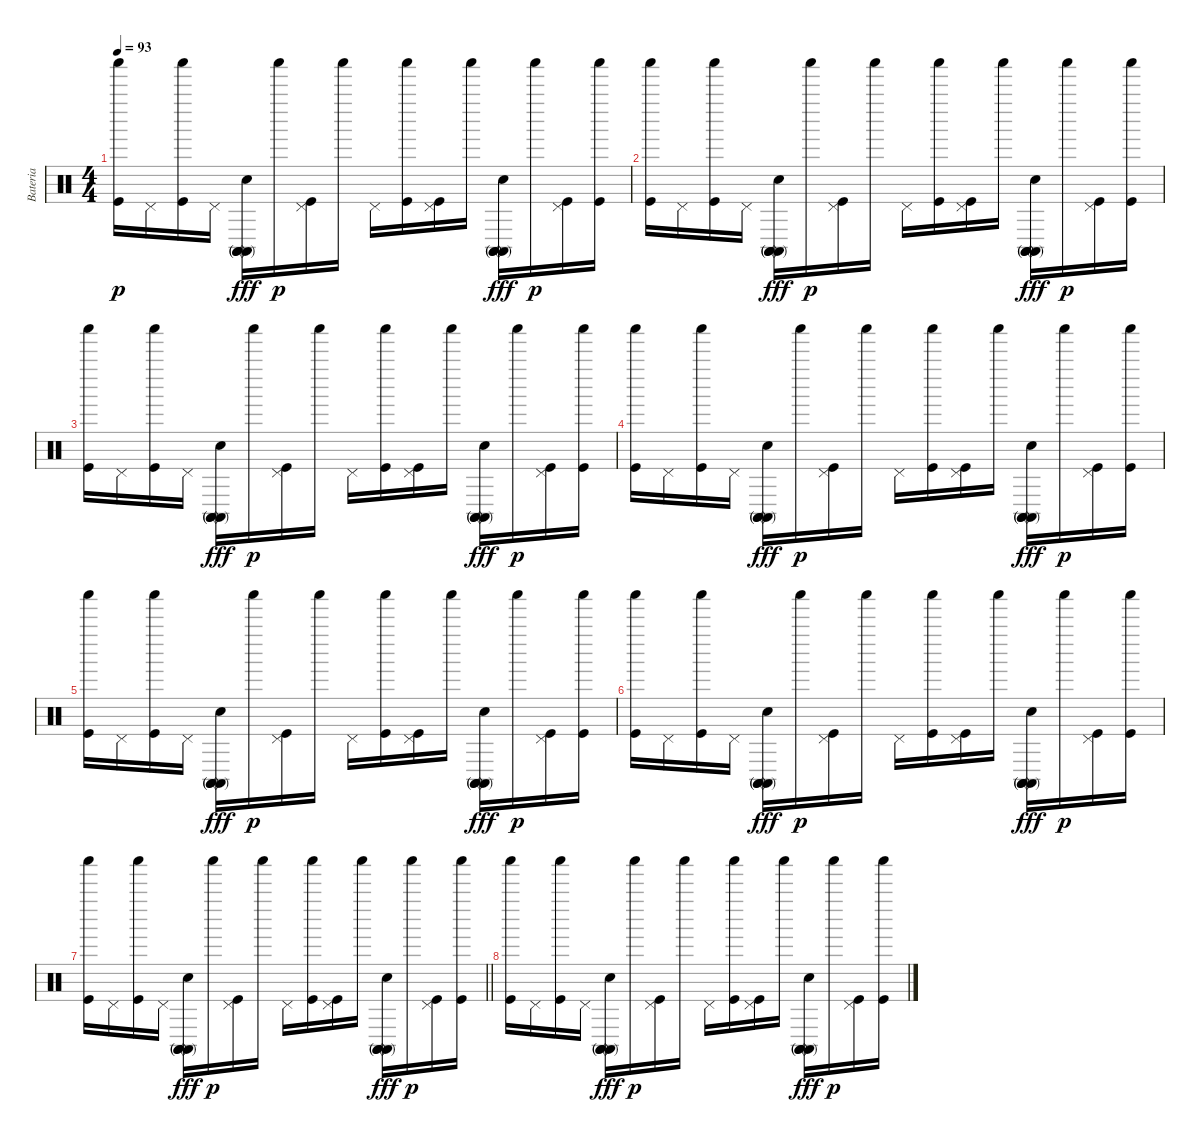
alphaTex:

\track ("Bateria" "Bateria") {instrument percussion}
\staff {score}
\articulation defaults
\ts (4 4)
\tempo 93
\clef neutral
\ks c
("Kick (hit)" "Shaker (hit)").16{dy p volume 13} "Pedal Hi-Hat (hit)".16 ("Kick (hit)" "Shaker (hit)").16 "Pedal Hi-Hat (hit)".16 ("Electric Snare (hit)" "Conga high (mute)" "Conga high (mute)" "Conga high (mute)").16{dy fff} "Shaker (hit)".16{dy p} ("Kick (hit)" "Pedal Hi-Hat (hit)").16 "Shaker (hit)".16 "Pedal Hi-Hat (hit)".16 ("Kick (hit)" "Shaker (hit)").16 ("Kick (hit)" "Pedal Hi-Hat (hit)").16 "Shaker (hit)".16 ("Electric Snare (hit)" "Conga high (mute)" "Conga high (mute)" "Conga high (mute)").16{dy fff} "Shaker (hit)".16{dy p} ("Kick (hit)" "Pedal Hi-Hat (hit)").16 ("Kick (hit)" "Shaker (hit)").16 |
("Kick (hit)" "Shaker (hit)").16{volume 13} "Pedal Hi-Hat (hit)".16 ("Kick (hit)" "Shaker (hit)").16 "Pedal Hi-Hat (hit)".16 ("Electric Snare (hit)" "Conga high (mute)" "Conga high (mute)" "Conga high (mute)").16{dy fff} "Shaker (hit)".16{dy p} ("Kick (hit)" "Pedal Hi-Hat (hit)").16 "Shaker (hit)".16 "Pedal Hi-Hat (hit)".16 ("Kick (hit)" "Shaker (hit)").16 ("Kick (hit)" "Pedal Hi-Hat (hit)").16 "Shaker (hit)".16 ("Electric Snare (hit)" "Conga high (mute)" "Conga high (mute)" "Conga high (mute)").16{dy fff} "Shaker (hit)".16{dy p} ("Kick (hit)" "Pedal Hi-Hat (hit)").16 ("Kick (hit)" "Shaker (hit)").16 |
("Kick (hit)" "Shaker (hit)").16{volume 13} "Pedal Hi-Hat (hit)".16 ("Kick (hit)" "Shaker (hit)").16 "Pedal Hi-Hat (hit)".16 ("Electric Snare (hit)" "Conga high (mute)" "Conga high (mute)" "Conga high (mute)").16{dy fff} "Shaker (hit)".16{dy p} ("Kick (hit)" "Pedal Hi-Hat (hit)").16 "Shaker (hit)".16 "Pedal Hi-Hat (hit)".16 ("Kick (hit)" "Shaker (hit)").16 ("Kick (hit)" "Pedal Hi-Hat (hit)").16 "Shaker (hit)".16 ("Electric Snare (hit)" "Conga high (mute)" "Conga high (mute)" "Conga high (mute)").16{dy fff} "Shaker (hit)".16{dy p} ("Kick (hit)" "Pedal Hi-Hat (hit)").16 ("Kick (hit)" "Shaker (hit)").16 |
("Kick (hit)" "Shaker (hit)").16{volume 13} "Pedal Hi-Hat (hit)".16 ("Kick (hit)" "Shaker (hit)").16 "Pedal Hi-Hat (hit)".16 ("Electric Snare (hit)" "Conga high (mute)" "Conga high (mute)" "Conga high (mute)").16{dy fff} "Shaker (hit)".16{dy p} ("Kick (hit)" "Pedal Hi-Hat (hit)").16 "Shaker (hit)".16 "Pedal Hi-Hat (hit)".16 ("Kick (hit)" "Shaker (hit)").16 ("Kick (hit)" "Pedal Hi-Hat (hit)").16 "Shaker (hit)".16 ("Electric Snare (hit)" "Conga high (mute)" "Conga high (mute)" "Conga high (mute)").16{dy fff} "Shaker (hit)".16{dy p} ("Kick (hit)" "Pedal Hi-Hat (hit)").16 ("Kick (hit)" "Shaker (hit)").16 |
("Kick (hit)" "Shaker (hit)").16{volume 13} "Pedal Hi-Hat (hit)".16 ("Kick (hit)" "Shaker (hit)").16 "Pedal Hi-Hat (hit)".16 ("Electric Snare (hit)" "Conga high (mute)" "Conga high (mute)" "Conga high (mute)").16{dy fff} "Shaker (hit)".16{dy p} ("Kick (hit)" "Pedal Hi-Hat (hit)").16 "Shaker (hit)".16 "Pedal Hi-Hat (hit)".16 ("Kick (hit)" "Shaker (hit)").16 ("Kick (hit)" "Pedal Hi-Hat (hit)").16 "Shaker (hit)".16 ("Electric Snare (hit)" "Conga high (mute)" "Conga high (mute)" "Conga high (mute)").16{dy fff} "Shaker (hit)".16{dy p} ("Kick (hit)" "Pedal Hi-Hat (hit)").16 ("Kick (hit)" "Shaker (hit)").16 |
("Kick (hit)" "Shaker (hit)").16{volume 13} "Pedal Hi-Hat (hit)".16 ("Kick (hit)" "Shaker (hit)").16 "Pedal Hi-Hat (hit)".16 ("Electric Snare (hit)" "Conga high (mute)" "Conga high (mute)" "Conga high (mute)").16{dy fff} "Shaker (hit)".16{dy p} ("Kick (hit)" "Pedal Hi-Hat (hit)").16 "Shaker (hit)".16 "Pedal Hi-Hat (hit)".16 ("Kick (hit)" "Shaker (hit)").16 ("Kick (hit)" "Pedal Hi-Hat (hit)").16 "Shaker (hit)".16 ("Electric Snare (hit)" "Conga high (mute)" "Conga high (mute)" "Conga high (mute)").16{dy fff} "Shaker (hit)".16{dy p} ("Kick (hit)" "Pedal Hi-Hat (hit)").16 ("Kick (hit)" "Shaker (hit)").16 |
\barLineRight lightlight
("Kick (hit)" "Shaker (hit)").16{volume 13} "Pedal Hi-Hat (hit)".16 ("Kick (hit)" "Shaker (hit)").16 "Pedal Hi-Hat (hit)".16 ("Electric Snare (hit)" "Conga high (mute)" "Conga high (mute)" "Conga high (mute)").16{dy fff} "Shaker (hit)".16{dy p} ("Kick (hit)" "Pedal Hi-Hat (hit)").16 "Shaker (hit)".16 "Pedal Hi-Hat (hit)".16 ("Kick (hit)" "Shaker (hit)").16 ("Kick (hit)" "Pedal Hi-Hat (hit)").16 "Shaker (hit)".16 ("Electric Snare (hit)" "Conga high (mute)" "Conga high (mute)" "Conga high (mute)").16{dy fff} "Shaker (hit)".16{dy p} ("Kick (hit)" "Pedal Hi-Hat (hit)").16 ("Kick (hit)" "Shaker (hit)").16 |
("Kick (hit)" "Shaker (hit)").16{volume 13} "Pedal Hi-Hat (hit)".16 ("Kick (hit)" "Shaker (hit)").16 "Pedal Hi-Hat (hit)".16 ("Electric Snare (hit)" "Conga high (mute)" "Conga high (mute)" "Conga high (mute)").16{dy fff} "Shaker (hit)".16{dy p} ("Kick (hit)" "Pedal Hi-Hat (hit)").16 "Shaker (hit)".16 "Pedal Hi-Hat (hit)".16 ("Kick (hit)" "Shaker (hit)").16 ("Kick (hit)" "Pedal Hi-Hat (hit)").16 "Shaker (hit)".16 ("Electric Snare (hit)" "Conga high (mute)" "Conga high (mute)" "Conga high (mute)").16{dy fff} "Shaker (hit)".16{dy p} ("Kick (hit)" "Pedal Hi-Hat (hit)").16 ("Kick (hit)" "Shaker (hit)").16
